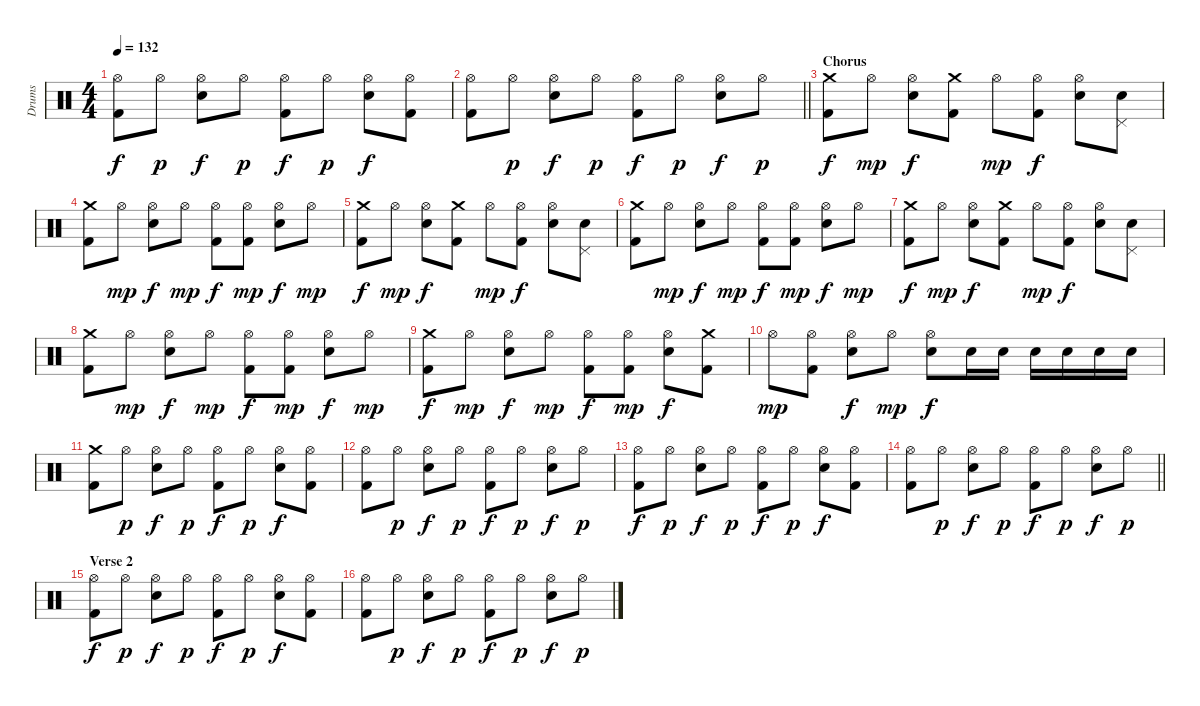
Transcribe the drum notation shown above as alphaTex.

\track ("Drums" "Drums") {instrument percussion}
\staff {score}
\articulation defaults
\ts (4 4)
\tempo 132
\clef neutral
\ks c
("Hi-Hat (open)" "Kick (hit) 2").8{dy f} "Hi-Hat (open)".8{dy p} ("Hi-Hat (open)" "Snare (hit) 2").8{dy f} "Hi-Hat (open)".8{dy p} ("Hi-Hat (open)" "Kick (hit) 2").8{dy f} "Hi-Hat (open)".8{dy p} ("Hi-Hat (open)" "Snare (hit) 2").8{dy f} ("Hi-Hat (open)" "Kick (hit) 2").8 |
\barLineRight lightlight
("Hi-Hat (open)" "Kick (hit) 2").8 "Hi-Hat (open)".8{dy p} ("Hi-Hat (open)" "Snare (hit) 2").8{dy f} "Hi-Hat (open)".8{dy p} ("Hi-Hat (open)" "Kick (hit) 2").8{dy f} "Hi-Hat (open)".8{dy p} ("Hi-Hat (open)" "Snare (hit) 2").8{dy f} "Hi-Hat (open)".8{dy p} |
\section ("" "Chorus")
("Crash medium (hit)" "Kick (hit) 2").8{dy f} "Hi-Hat (open)".8{dy mp} ("Hi-Hat (open)" "Snare (hit) 2").8{dy f} ("Crash medium (hit)" "Kick (hit) 2").8 "Hi-Hat (open)".8{dy mp} ("Hi-Hat (open)" "Kick (hit) 2").8{dy f} ("Hi-Hat (open)" "Snare (hit) 2").8 ("Pedal Hi-Hat (hit)" "Snare (hit) 2").8 |
("Crash medium (hit)" "Kick (hit) 2").8 "Hi-Hat (open)".8{dy mp} ("Hi-Hat (open)" "Snare (hit) 2").8{dy f} "Hi-Hat (open)".8{dy mp} ("Hi-Hat (open)" "Kick (hit) 2").8{dy f} ("Hi-Hat (open)" "Kick (hit) 2").8{dy mp} ("Hi-Hat (open)" "Snare (hit) 2").8{dy f} "Hi-Hat (open)".8{dy mp} |
("Crash medium (hit)" "Kick (hit) 2").8{dy f} "Hi-Hat (open)".8{dy mp} ("Hi-Hat (open)" "Snare (hit) 2").8{dy f} ("Crash medium (hit)" "Kick (hit) 2").8 "Hi-Hat (open)".8{dy mp} ("Hi-Hat (open)" "Kick (hit) 2").8{dy f} ("Hi-Hat (open)" "Snare (hit) 2").8 ("Pedal Hi-Hat (hit)" "Snare (hit) 2").8 |
("Crash medium (hit)" "Kick (hit) 2").8 "Hi-Hat (open)".8{dy mp} ("Hi-Hat (open)" "Snare (hit) 2").8{dy f} "Hi-Hat (open)".8{dy mp} ("Hi-Hat (open)" "Kick (hit) 2").8{dy f} ("Hi-Hat (open)" "Kick (hit) 2").8{dy mp} ("Hi-Hat (open)" "Snare (hit) 2").8{dy f} "Hi-Hat (open)".8{dy mp} |
("Crash medium (hit)" "Kick (hit) 2").8{dy f} "Hi-Hat (open)".8{dy mp} ("Hi-Hat (open)" "Snare (hit) 2").8{dy f} ("Crash medium (hit)" "Kick (hit) 2").8 "Hi-Hat (open)".8{dy mp} ("Hi-Hat (open)" "Kick (hit) 2").8{dy f} ("Hi-Hat (open)" "Snare (hit) 2").8 ("Pedal Hi-Hat (hit)" "Snare (hit) 2").8 |
("Crash medium (hit)" "Kick (hit) 2").8 "Hi-Hat (open)".8{dy mp} ("Hi-Hat (open)" "Snare (hit) 2").8{dy f} "Hi-Hat (open)".8{dy mp} ("Hi-Hat (open)" "Kick (hit) 2").8{dy f} ("Hi-Hat (open)" "Kick (hit) 2").8{dy mp} ("Hi-Hat (open)" "Snare (hit) 2").8{dy f} "Hi-Hat (open)".8{dy mp} |
("Crash medium (hit)" "Kick (hit) 2").8{dy f} "Hi-Hat (open)".8{dy mp} ("Hi-Hat (open)" "Snare (hit) 2").8{dy f} "Hi-Hat (open)".8{dy mp} ("Hi-Hat (open)" "Kick (hit) 2").8{dy f} ("Hi-Hat (open)" "Kick (hit) 2").8{dy mp} ("Hi-Hat (open)" "Snare (hit) 2").8{dy f} ("Crash medium (hit)" "Kick (hit) 2").8 |
"Hi-Hat (open)".8{dy mp} ("Hi-Hat (open)" "Kick (hit) 2").8 ("Hi-Hat (open)" "Snare (hit) 2").8{dy f} "Hi-Hat (open)".8{dy mp} ("Hi-Hat (open)" "Snare (hit) 2").8{dy f} "Snare (hit) 2".16 "Snare (hit) 2".16 "Snare (hit) 2".16 "Snare (hit) 2".16 "Snare (hit) 2".16 "Snare (hit) 2".16 |
("Crash medium (hit)" "Kick (hit) 2").8 "Hi-Hat (open)".8{dy p} ("Hi-Hat (open)" "Snare (hit) 2").8{dy f} "Hi-Hat (open)".8{dy p} ("Hi-Hat (open)" "Kick (hit) 2").8{dy f} "Hi-Hat (open)".8{dy p} ("Hi-Hat (open)" "Snare (hit) 2").8{dy f} ("Hi-Hat (open)" "Kick (hit) 2").8 |
("Hi-Hat (open)" "Kick (hit) 2").8 "Hi-Hat (open)".8{dy p} ("Hi-Hat (open)" "Snare (hit) 2").8{dy f} "Hi-Hat (open)".8{dy p} ("Hi-Hat (open)" "Kick (hit) 2").8{dy f} "Hi-Hat (open)".8{dy p} ("Hi-Hat (open)" "Snare (hit) 2").8{dy f} "Hi-Hat (open)".8{dy p} |
("Hi-Hat (open)" "Kick (hit) 2").8{dy f} "Hi-Hat (open)".8{dy p} ("Hi-Hat (open)" "Snare (hit) 2").8{dy f} "Hi-Hat (open)".8{dy p} ("Hi-Hat (open)" "Kick (hit) 2").8{dy f} "Hi-Hat (open)".8{dy p} ("Hi-Hat (open)" "Snare (hit) 2").8{dy f} ("Hi-Hat (open)" "Kick (hit) 2").8 |
\barLineRight lightlight
("Hi-Hat (open)" "Kick (hit) 2").8 "Hi-Hat (open)".8{dy p} ("Hi-Hat (open)" "Snare (hit) 2").8{dy f} "Hi-Hat (open)".8{dy p} ("Hi-Hat (open)" "Kick (hit) 2").8{dy f} "Hi-Hat (open)".8{dy p} ("Hi-Hat (open)" "Snare (hit) 2").8{dy f} "Hi-Hat (open)".8{dy p} |
\section ("" "Verse 2")
("Hi-Hat (open)" "Kick (hit) 2").8{dy f} "Hi-Hat (open)".8{dy p} ("Hi-Hat (open)" "Snare (hit) 2").8{dy f} "Hi-Hat (open)".8{dy p} ("Hi-Hat (open)" "Kick (hit) 2").8{dy f} "Hi-Hat (open)".8{dy p} ("Hi-Hat (open)" "Snare (hit) 2").8{dy f} ("Hi-Hat (open)" "Kick (hit) 2").8 |
("Hi-Hat (open)" "Kick (hit) 2").8 "Hi-Hat (open)".8{dy p} ("Hi-Hat (open)" "Snare (hit) 2").8{dy f} "Hi-Hat (open)".8{dy p} ("Hi-Hat (open)" "Kick (hit) 2").8{dy f} "Hi-Hat (open)".8{dy p} ("Hi-Hat (open)" "Snare (hit) 2").8{dy f} "Hi-Hat (open)".8{dy p}
